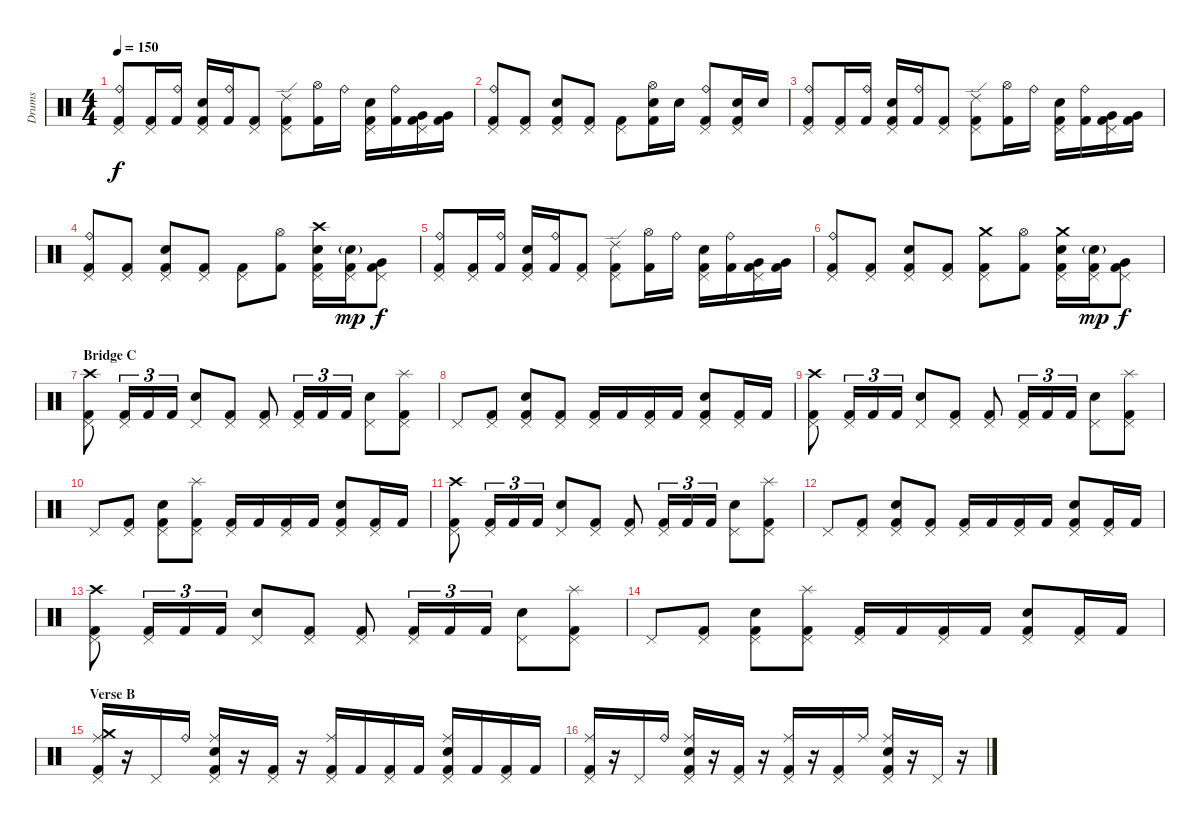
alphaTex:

\track ("Drums" "Drums") {instrument percussion}
\staff {score}
\articulation defaults
\ts (4 4)
\tempo 150
\clef neutral
\ks c
("Kick (hit) 2" "Ride (bell)" "Pedal Hi-Hat (hit)").8{dy f} ("Kick (hit) 2" "Pedal Hi-Hat (hit)").16 ("Kick (hit) 2" "Ride (bell)").16 ("Kick (hit) 2" "Snare (hit) 2" "Pedal Hi-Hat (hit)").16 ("Kick (hit) 2" "Ride (bell)").16 ("Kick (hit) 2" "Pedal Hi-Hat (hit)").8 ("Kick (hit) 2" "Ride (edge) 2" "Pedal Hi-Hat (hit)").8 ("Kick (hit) 2" "Hi-Hat (open)").16 "Ride (bell)".16 ("Kick (hit) 2" "Snare (hit) 2" "Pedal Hi-Hat (hit)").16 ("Kick (hit) 2" "Ride (bell)").16 ("Kick (hit) 2" "Very Low Tom (hit)" "Pedal Hi-Hat (hit)").16 ("Kick (hit) 2" "Very Low Tom (hit)").16 |
("Kick (hit) 2" "Ride (bell)" "Pedal Hi-Hat (hit)").8 ("Kick (hit) 2" "Pedal Hi-Hat (hit)").8 ("Kick (hit) 2" "Snare (hit) 2" "Pedal Hi-Hat (hit)").8 ("Kick (hit) 2" "Pedal Hi-Hat (hit)").8 ("Kick (hit) 2" "Pedal Hi-Hat (hit)").8 ("Kick (hit) 2" "Snare (hit) 2" "Hi-Hat (open)").16 "Snare (hit) 2".16 ("Kick (hit) 2" "Ride (bell)" "Pedal Hi-Hat (hit)").8 ("Kick (hit) 2" "Snare (hit) 2" "Pedal Hi-Hat (hit)").16 "Snare (hit) 2".16 |
("Kick (hit) 2" "Ride (bell)" "Pedal Hi-Hat (hit)").8 ("Kick (hit) 2" "Pedal Hi-Hat (hit)").16 ("Kick (hit) 2" "Ride (bell)").16 ("Kick (hit) 2" "Snare (hit) 2" "Pedal Hi-Hat (hit)").16 ("Kick (hit) 2" "Ride (bell)").16 ("Kick (hit) 2" "Pedal Hi-Hat (hit)").8 ("Kick (hit) 2" "Ride (edge) 2" "Pedal Hi-Hat (hit)").8 ("Kick (hit) 2" "Hi-Hat (open)").16 "Ride (bell)".16 ("Kick (hit) 2" "Snare (hit) 2" "Pedal Hi-Hat (hit)").16 ("Kick (hit) 2" "Ride (bell)").16 ("Kick (hit) 2" "Very Low Tom (hit)" "Pedal Hi-Hat (hit)").16 ("Kick (hit) 2" "Very Low Tom (hit)").16 |
("Kick (hit) 2" "Ride (bell)" "Pedal Hi-Hat (hit)").8 ("Kick (hit) 2" "Pedal Hi-Hat (hit)").8 ("Kick (hit) 2" "Snare (hit) 2" "Pedal Hi-Hat (hit)").8 ("Kick (hit) 2" "Pedal Hi-Hat (hit)").8 ("Kick (hit) 2" "Pedal Hi-Hat (hit)").8 ("Kick (hit) 2" "Hi-Hat (open)").8 ("Kick (hit) 2" "Crash high (hit)" "Snare (hit) 2" "Pedal Hi-Hat (hit)").16 ("Kick (hit) 2" "Snare (hit) 2"{g} "Pedal Hi-Hat (hit)").16{dy mp} ("Kick (hit) 2" "Very Low Tom (hit)" "Pedal Hi-Hat (hit)").8{dy f} |
("Kick (hit) 2" "Ride (bell)" "Pedal Hi-Hat (hit)").8 ("Kick (hit) 2" "Pedal Hi-Hat (hit)").16 ("Kick (hit) 2" "Ride (bell)").16 ("Kick (hit) 2" "Snare (hit) 2" "Pedal Hi-Hat (hit)").16 ("Kick (hit) 2" "Ride (bell)").16 ("Kick (hit) 2" "Pedal Hi-Hat (hit)").8 ("Kick (hit) 2" "Ride (edge) 2" "Pedal Hi-Hat (hit)").8 ("Kick (hit) 2" "Hi-Hat (open)").16 "Ride (bell)".16 ("Kick (hit) 2" "Snare (hit) 2" "Pedal Hi-Hat (hit)").16 ("Kick (hit) 2" "Ride (bell)").16 ("Kick (hit) 2" "Very Low Tom (hit)" "Pedal Hi-Hat (hit)").16 ("Kick (hit) 2" "Very Low Tom (hit)").16 |
("Kick (hit) 2" "Ride (bell)" "Pedal Hi-Hat (hit)").8 ("Kick (hit) 2" "Pedal Hi-Hat (hit)").8 ("Kick (hit) 2" "Snare (hit) 2" "Pedal Hi-Hat (hit)").8 ("Kick (hit) 2" "Pedal Hi-Hat (hit)").8 ("Kick (hit) 2" "Crash medium (hit)" "Pedal Hi-Hat (hit)").8 ("Kick (hit) 2" "Hi-Hat (open)").8 ("Kick (hit) 2" "Crash medium (hit)" "Snare (hit) 2" "Pedal Hi-Hat (hit)").16 ("Kick (hit) 2" "Snare (hit) 2"{g} "Pedal Hi-Hat (hit)").16{dy mp} ("Kick (hit) 2" "Very Low Tom (hit)" "Pedal Hi-Hat (hit)").8{dy f} |
\section ("" "Bridge C")
("Kick (hit) 2" "Pedal Hi-Hat (hit)" "Crash high (hit)").8 ("Kick (hit) 2" "Pedal Hi-Hat (hit)").16{tu (3 2)} "Kick (hit) 2".16{tu (3 2)} "Kick (hit) 2".16{tu (3 2)} ("Pedal Hi-Hat (hit)" "Snare (hit) 2").8 ("Kick (hit) 2" "Pedal Hi-Hat (hit)").8 ("Kick (hit) 2" "Pedal Hi-Hat (hit)").8 ("Kick (hit) 2" "Pedal Hi-Hat (hit)").16{tu (3 2)} "Kick (hit) 2".16{tu (3 2)} "Kick (hit) 2".16{tu (3 2)} ("Pedal Hi-Hat (hit)" "Snare (hit) 2").8 ("Kick (hit) 2" "Splash (hit)" "Pedal Hi-Hat (hit)").8 |
"Pedal Hi-Hat (hit)".8 ("Kick (hit) 2" "Pedal Hi-Hat (hit)").8 ("Kick (hit) 2" "Pedal Hi-Hat (hit)" "Snare (hit) 2").8 ("Kick (hit) 2" "Pedal Hi-Hat (hit)").8 ("Kick (hit) 2" "Pedal Hi-Hat (hit)").16 "Kick (hit) 2".16 ("Kick (hit) 2" "Pedal Hi-Hat (hit)").16 "Kick (hit) 2".16 ("Kick (hit) 2" "Pedal Hi-Hat (hit)" "Snare (hit) 2").8 ("Kick (hit) 2" "Pedal Hi-Hat (hit)").16 "Kick (hit) 2".16 |
("Kick (hit) 2" "Pedal Hi-Hat (hit)" "Crash high (hit)").8 ("Kick (hit) 2" "Pedal Hi-Hat (hit)").16{tu (3 2)} "Kick (hit) 2".16{tu (3 2)} "Kick (hit) 2".16{tu (3 2)} ("Pedal Hi-Hat (hit)" "Snare (hit) 2").8 ("Kick (hit) 2" "Pedal Hi-Hat (hit)").8 ("Kick (hit) 2" "Pedal Hi-Hat (hit)").8 ("Kick (hit) 2" "Pedal Hi-Hat (hit)").16{tu (3 2)} "Kick (hit) 2".16{tu (3 2)} "Kick (hit) 2".16{tu (3 2)} ("Pedal Hi-Hat (hit)" "Snare (hit) 2").8 ("Kick (hit) 2" "Splash (hit)" "Pedal Hi-Hat (hit)").8 |
"Pedal Hi-Hat (hit)".8 ("Kick (hit) 2" "Pedal Hi-Hat (hit)").8 ("Kick (hit) 2" "Pedal Hi-Hat (hit)" "Snare (hit) 2").8 ("Kick (hit) 2" "Splash (hit)" "Pedal Hi-Hat (hit)").8 ("Kick (hit) 2" "Pedal Hi-Hat (hit)").16 "Kick (hit) 2".16 ("Kick (hit) 2" "Pedal Hi-Hat (hit)").16 "Kick (hit) 2".16 ("Kick (hit) 2" "Pedal Hi-Hat (hit)" "Snare (hit) 2").8 ("Kick (hit) 2" "Pedal Hi-Hat (hit)").16 "Kick (hit) 2".16 |
("Kick (hit) 2" "Pedal Hi-Hat (hit)" "Crash high (hit)").8 ("Kick (hit) 2" "Pedal Hi-Hat (hit)").16{tu (3 2)} "Kick (hit) 2".16{tu (3 2)} "Kick (hit) 2".16{tu (3 2)} ("Pedal Hi-Hat (hit)" "Snare (hit) 2").8 ("Kick (hit) 2" "Pedal Hi-Hat (hit)").8 ("Kick (hit) 2" "Pedal Hi-Hat (hit)").8 ("Kick (hit) 2" "Pedal Hi-Hat (hit)").16{tu (3 2)} "Kick (hit) 2".16{tu (3 2)} "Kick (hit) 2".16{tu (3 2)} ("Pedal Hi-Hat (hit)" "Snare (hit) 2").8 ("Kick (hit) 2" "Splash (hit)" "Pedal Hi-Hat (hit)").8 |
"Pedal Hi-Hat (hit)".8 ("Kick (hit) 2" "Pedal Hi-Hat (hit)").8 ("Kick (hit) 2" "Pedal Hi-Hat (hit)" "Snare (hit) 2").8 ("Kick (hit) 2" "Pedal Hi-Hat (hit)").8 ("Kick (hit) 2" "Pedal Hi-Hat (hit)").16 "Kick (hit) 2".16 ("Kick (hit) 2" "Pedal Hi-Hat (hit)").16 "Kick (hit) 2".16 ("Kick (hit) 2" "Pedal Hi-Hat (hit)" "Snare (hit) 2").8 ("Kick (hit) 2" "Pedal Hi-Hat (hit)").16 "Kick (hit) 2".16 |
("Kick (hit) 2" "Pedal Hi-Hat (hit)" "Crash high (hit)").8 ("Kick (hit) 2" "Pedal Hi-Hat (hit)").16{tu (3 2)} "Kick (hit) 2".16{tu (3 2)} "Kick (hit) 2".16{tu (3 2)} ("Pedal Hi-Hat (hit)" "Snare (hit) 2").8 ("Kick (hit) 2" "Pedal Hi-Hat (hit)").8 ("Kick (hit) 2" "Pedal Hi-Hat (hit)").8 ("Kick (hit) 2" "Pedal Hi-Hat (hit)").16{tu (3 2)} "Kick (hit) 2".16{tu (3 2)} "Kick (hit) 2".16{tu (3 2)} ("Pedal Hi-Hat (hit)" "Snare (hit) 2").8 ("Kick (hit) 2" "Splash (hit)" "Pedal Hi-Hat (hit)").8 |
"Pedal Hi-Hat (hit)".8 ("Kick (hit) 2" "Pedal Hi-Hat (hit)").8 ("Kick (hit) 2" "Pedal Hi-Hat (hit)" "Snare (hit) 2").8 ("Kick (hit) 2" "Splash (hit)" "Pedal Hi-Hat (hit)").8 ("Kick (hit) 2" "Pedal Hi-Hat (hit)").16 "Kick (hit) 2".16 ("Kick (hit) 2" "Pedal Hi-Hat (hit)").16 "Kick (hit) 2".16 ("Kick (hit) 2" "Pedal Hi-Hat (hit)" "Snare (hit) 2").8 ("Kick (hit) 2" "Pedal Hi-Hat (hit)").16 "Kick (hit) 2".16 |
\section ("" "Verse B")
("Kick (hit) 2" "Crash medium (hit)" "Pedal Hi-Hat (hit)" "Ride (middle)").16 r.16 "Pedal Hi-Hat (hit)".16 "Ride (bell)".16 ("Kick (hit) 2" "Pedal Hi-Hat (hit)" "Snare (hit) 2" "Ride (middle)").16 r.16 ("Kick (hit) 2" "Pedal Hi-Hat (hit)").16 r.16 ("Kick (hit) 2" "Pedal Hi-Hat (hit)" "Ride (middle)").16 "Kick (hit) 2".16 ("Kick (hit) 2" "Pedal Hi-Hat (hit)").16 "Kick (hit) 2".16 ("Kick (hit) 2" "Pedal Hi-Hat (hit)" "Snare (hit) 2" "Ride (middle)").16 "Kick (hit) 2".16 ("Kick (hit) 2" "Pedal Hi-Hat (hit)").16 "Kick (hit) 2".16 |
("Kick (hit) 2" "Pedal Hi-Hat (hit)" "Ride (middle)").16 r.16 "Pedal Hi-Hat (hit)".16 "Ride (bell)".16 ("Kick (hit) 2" "Pedal Hi-Hat (hit)" "Snare (hit) 2" "Ride (middle)").16 r.16 ("Kick (hit) 2" "Pedal Hi-Hat (hit)").16 r.16 ("Kick (hit) 2" "Pedal Hi-Hat (hit)" "Ride (middle)").16 r.16 ("Kick (hit) 2" "Pedal Hi-Hat (hit)").16 "Ride (middle)".16 ("Kick (hit) 2" "Pedal Hi-Hat (hit)" "Snare (hit) 2" "Ride (middle)").16 r.16 "Pedal Hi-Hat (hit)".16 r.16
